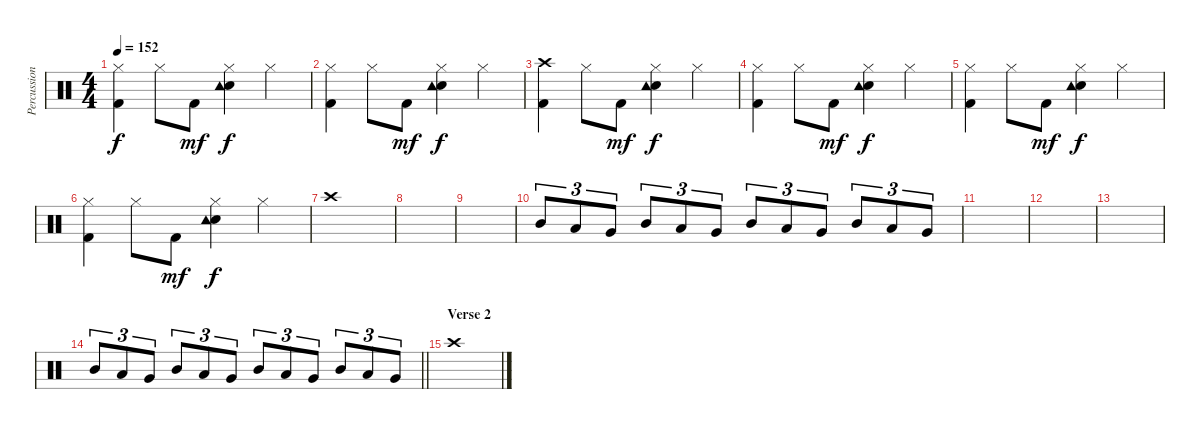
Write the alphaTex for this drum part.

\track ("Percussion" "Percussion") {instrument percussion}
\staff {score}
\articulation defaults
\ts (4 4)
\tempo 152
\clef neutral
\ks c
("Hi-Hat (closed)" "Kick (hit) 2").4{dy f} "Hi-Hat (closed)".8 "Kick (hit) 2".8{dy mf} ("Hi-Hat (closed)" "Snare (hit) 2" "Tambourine (hit)").4{dy f} "Hi-Hat (closed)".4 |
("Hi-Hat (closed)" "Kick (hit) 2").4 "Hi-Hat (closed)".8 "Kick (hit) 2".8{dy mf} ("Hi-Hat (closed)" "Snare (hit) 2" "Tambourine (hit)").4{dy f} "Hi-Hat (closed)".4 |
("Crash high (hit)" "Kick (hit) 2").4 "Hi-Hat (closed)".8 "Kick (hit) 2".8{dy mf} ("Hi-Hat (closed)" "Snare (hit) 2" "Tambourine (hit)").4{dy f} "Hi-Hat (closed)".4 |
("Hi-Hat (closed)" "Kick (hit) 2").4 "Hi-Hat (closed)".8 "Kick (hit) 2".8{dy mf} ("Hi-Hat (closed)" "Snare (hit) 2" "Tambourine (hit)").4{dy f} "Hi-Hat (closed)".4 |
("Hi-Hat (closed)" "Kick (hit) 2").4 "Hi-Hat (closed)".8 "Kick (hit) 2".8{dy mf} ("Hi-Hat (closed)" "Snare (hit) 2" "Tambourine (hit)").4{dy f} "Hi-Hat (closed)".4 |
("Hi-Hat (closed)" "Kick (hit) 2").4 "Hi-Hat (closed)".8 "Kick (hit) 2".8{dy mf} ("Hi-Hat (closed)" "Snare (hit) 2" "Tambourine (hit)").4{dy f} "Hi-Hat (closed)".4 |
"Crash high (hit)".1 |
|
|
"Mid Tom (hit)".8{tu (3 2)} "Low Tom (hit)".8{tu (3 2)} "Very Low Tom (hit)".8{tu (3 2)} "Mid Tom (hit)".8{tu (3 2)} "Low Tom (hit)".8{tu (3 2)} "Very Low Tom (hit)".8{tu (3 2)} "Mid Tom (hit)".8{tu (3 2)} "Low Tom (hit)".8{tu (3 2)} "Very Low Tom (hit)".8{tu (3 2)} "Mid Tom (hit)".8{tu (3 2)} "Low Tom (hit)".8{tu (3 2)} "Very Low Tom (hit)".8{tu (3 2)} |
|
|
|
\barLineRight lightlight "Mid Tom (hit)".8{tu (3 2)} "Low Tom (hit)".8{tu (3 2)} "Very Low Tom (hit)".8{tu (3 2)} "Mid Tom (hit)".8{tu (3 2)} "Low Tom (hit)".8{tu (3 2)} "Very Low Tom (hit)".8{tu (3 2)} "Mid Tom (hit)".8{tu (3 2)} "Low Tom (hit)".8{tu (3 2)} "Very Low Tom (hit)".8{tu (3 2)} "Mid Tom (hit)".8{tu (3 2)} "Low Tom (hit)".8{tu (3 2)} "Very Low Tom (hit)".8{tu (3 2)}
|
\section ("" "Verse 2")
"Crash high (hit)".1
